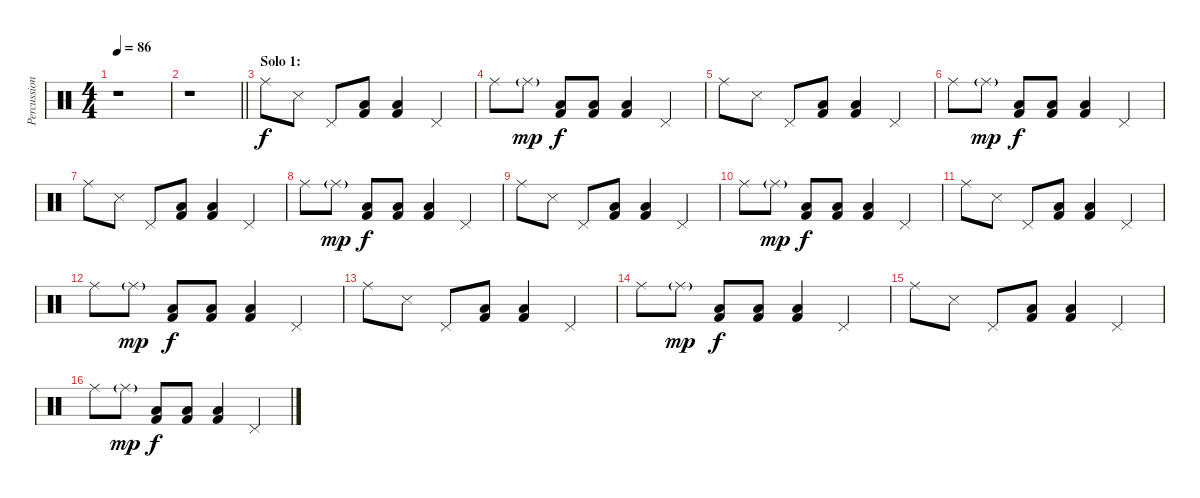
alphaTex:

\track ("Percussion" "Percussion") {instrument percussion}
\staff {score}
\articulation defaults
\ts (4 4)
\tempo 86
\clef neutral
\ks c
r.1{dy f} |
\barLineRight lightlight
r.1 |
\section ("" "Solo 1:")
"Ride (middle)".8 "Snare (side stick) 3".8 "Pedal Hi-Hat (hit)".8 ("Low Tom (hit)" "Kick (hit) 2").8 ("Low Tom (hit)" "Kick (hit) 2").4 "Pedal Hi-Hat (hit)".4 |
"Ride (middle)".8 "Ride (middle)"{g}.8{dy mp} ("Low Tom (hit)" "Kick (hit) 2").8{dy f} ("Low Tom (hit)" "Kick (hit) 2").8 ("Low Tom (hit)" "Kick (hit) 2").4 "Pedal Hi-Hat (hit)".4 |
"Ride (middle)".8 "Snare (side stick) 3".8 "Pedal Hi-Hat (hit)".8 ("Low Tom (hit)" "Kick (hit) 2").8 ("Low Tom (hit)" "Kick (hit) 2").4 "Pedal Hi-Hat (hit)".4 |
"Ride (middle)".8 "Ride (middle)"{g}.8{dy mp} ("Low Tom (hit)" "Kick (hit) 2").8{dy f} ("Low Tom (hit)" "Kick (hit) 2").8 ("Low Tom (hit)" "Kick (hit) 2").4 "Pedal Hi-Hat (hit)".4 |
"Ride (middle)".8 "Snare (side stick) 3".8 "Pedal Hi-Hat (hit)".8 ("Low Tom (hit)" "Kick (hit) 2").8 ("Low Tom (hit)" "Kick (hit) 2").4 "Pedal Hi-Hat (hit)".4 |
"Ride (middle)".8 "Ride (middle)"{g}.8{dy mp} ("Low Tom (hit)" "Kick (hit) 2").8{dy f} ("Low Tom (hit)" "Kick (hit) 2").8 ("Low Tom (hit)" "Kick (hit) 2").4 "Pedal Hi-Hat (hit)".4 |
"Ride (middle)".8 "Snare (side stick) 3".8 "Pedal Hi-Hat (hit)".8 ("Low Tom (hit)" "Kick (hit) 2").8 ("Low Tom (hit)" "Kick (hit) 2").4 "Pedal Hi-Hat (hit)".4 |
"Ride (middle)".8 "Ride (middle)"{g}.8{dy mp} ("Low Tom (hit)" "Kick (hit) 2").8{dy f} ("Low Tom (hit)" "Kick (hit) 2").8 ("Low Tom (hit)" "Kick (hit) 2").4 "Pedal Hi-Hat (hit)".4 |
"Ride (middle)".8 "Snare (side stick) 3".8 "Pedal Hi-Hat (hit)".8 ("Low Tom (hit)" "Kick (hit) 2").8 ("Low Tom (hit)" "Kick (hit) 2").4 "Pedal Hi-Hat (hit)".4 |
"Ride (middle)".8 "Ride (middle)"{g}.8{dy mp} ("Low Tom (hit)" "Kick (hit) 2").8{dy f} ("Low Tom (hit)" "Kick (hit) 2").8 ("Low Tom (hit)" "Kick (hit) 2").4 "Pedal Hi-Hat (hit)".4 |
"Ride (middle)".8 "Snare (side stick) 3".8 "Pedal Hi-Hat (hit)".8 ("Low Tom (hit)" "Kick (hit) 2").8 ("Low Tom (hit)" "Kick (hit) 2").4 "Pedal Hi-Hat (hit)".4 |
"Ride (middle)".8 "Ride (middle)"{g}.8{dy mp} ("Low Tom (hit)" "Kick (hit) 2").8{dy f} ("Low Tom (hit)" "Kick (hit) 2").8 ("Low Tom (hit)" "Kick (hit) 2").4 "Pedal Hi-Hat (hit)".4 |
"Ride (middle)".8 "Snare (side stick) 3".8 "Pedal Hi-Hat (hit)".8 ("Low Tom (hit)" "Kick (hit) 2").8 ("Low Tom (hit)" "Kick (hit) 2").4 "Pedal Hi-Hat (hit)".4 |
"Ride (middle)".8 "Ride (middle)"{g}.8{dy mp} ("Low Tom (hit)" "Kick (hit) 2").8{dy f} ("Low Tom (hit)" "Kick (hit) 2").8 ("Low Tom (hit)" "Kick (hit) 2").4 "Pedal Hi-Hat (hit)".4
